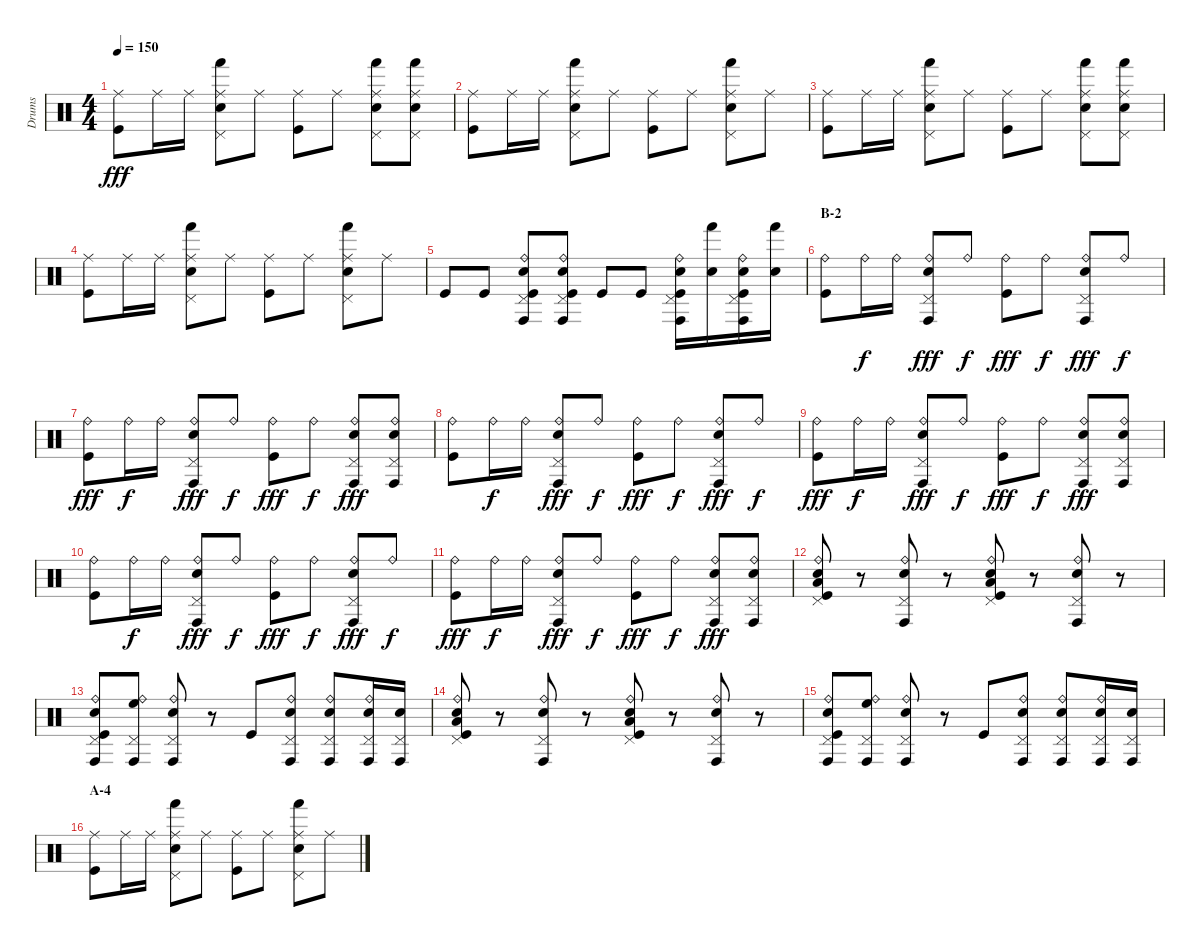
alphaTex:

\track ("Drums" "Drums") {instrument percussion}
\staff {score}
\articulation defaults
\ts (4 4)
\tempo 150
\clef neutral
\ks c
("Ride (middle)" "Kick (hit)").8{dy fff} "Ride (middle)".16 "Ride (middle)".16 ("Ride (middle)" "Pedal Hi-Hat (hit)" "Hand (hit)" "Electric Snare (hit)").8 "Ride (middle)".8 ("Ride (middle)" "Kick (hit)").8 "Ride (middle)".8 ("Ride (middle)" "Pedal Hi-Hat (hit)" "Hand (hit)" "Electric Snare (hit)").8 ("Ride (middle)" "Pedal Hi-Hat (hit)" "Hand (hit)" "Electric Snare (hit)").8 |
("Ride (middle)" "Kick (hit)").8 "Ride (middle)".16 "Ride (middle)".16 ("Ride (middle)" "Pedal Hi-Hat (hit)" "Hand (hit)" "Electric Snare (hit)").8 "Ride (middle)".8 ("Ride (middle)" "Kick (hit)").8 "Ride (middle)".8 ("Ride (middle)" "Pedal Hi-Hat (hit)" "Hand (hit)" "Electric Snare (hit)").8 "Ride (middle)".8 |
("Ride (middle)" "Kick (hit)").8 "Ride (middle)".16 "Ride (middle)".16 ("Ride (middle)" "Pedal Hi-Hat (hit)" "Hand (hit)" "Electric Snare (hit)").8 "Ride (middle)".8 ("Ride (middle)" "Kick (hit)").8 "Ride (middle)".8 ("Ride (middle)" "Pedal Hi-Hat (hit)" "Hand (hit)" "Electric Snare (hit)").8 ("Ride (middle)" "Pedal Hi-Hat (hit)" "Hand (hit)" "Electric Snare (hit)").8 |
("Ride (middle)" "Kick (hit)").8 "Ride (middle)".16 "Ride (middle)".16 ("Ride (middle)" "Pedal Hi-Hat (hit)" "Hand (hit)" "Electric Snare (hit)").8 "Ride (middle)".8 ("Ride (middle)" "Kick (hit)").8 "Ride (middle)".8 ("Ride (middle)" "Pedal Hi-Hat (hit)" "Hand (hit)" "Electric Snare (hit)").8 "Ride (middle)".8 |
"Kick (hit)".8 "Kick (hit)".8 ("Ride (bell)" "Pedal Hi-Hat (hit)" "Conga high (hit)" "Electric Snare (hit)" "Kick (hit)").8 ("Ride (bell)" "Pedal Hi-Hat (hit)" "Conga high (hit)" "Electric Snare (hit)" "Kick (hit)").8 "Kick (hit)".8 "Kick (hit)".8 ("Ride (bell)" "Pedal Hi-Hat (hit)" "Conga high (hit)" "Electric Snare (hit)" "Kick (hit)").16 ("Hand (hit)" "Electric Snare (hit)").16 ("Ride (bell)" "Pedal Hi-Hat (hit)" "Conga high (hit)" "Electric Snare (hit)" "Kick (hit)").16 ("Hand (hit)" "Electric Snare (hit)").16 |
\section ("" "B-2")
("Ride (bell)" "Kick (hit)").8 "Ride (bell)".16{dy f} "Ride (bell)".16 ("Ride (bell)" "Pedal Hi-Hat (hit)" "Conga high (hit)" "Electric Snare (hit)").8{dy fff} "Ride (bell)".8{dy f} ("Ride (bell)" "Kick (hit)").8{dy fff} "Ride (bell)".8{dy f} ("Ride (bell)" "Pedal Hi-Hat (hit)" "Conga high (hit)" "Electric Snare (hit)").8{dy fff} "Ride (bell)".8{dy f} |
("Ride (bell)" "Kick (hit)").8{dy fff} "Ride (bell)".16{dy f} "Ride (bell)".16 ("Ride (bell)" "Pedal Hi-Hat (hit)" "Conga high (hit)" "Electric Snare (hit)").8{dy fff} "Ride (bell)".8{dy f} ("Ride (bell)" "Kick (hit)").8{dy fff} "Ride (bell)".8{dy f} ("Ride (bell)" "Pedal Hi-Hat (hit)" "Conga high (hit)" "Electric Snare (hit)").8{dy fff} ("Ride (bell)" "Pedal Hi-Hat (hit)" "Conga high (hit)" "Electric Snare (hit)").8 |
("Ride (bell)" "Kick (hit)").8 "Ride (bell)".16{dy f} "Ride (bell)".16 ("Ride (bell)" "Pedal Hi-Hat (hit)" "Conga high (hit)" "Electric Snare (hit)").8{dy fff} "Ride (bell)".8{dy f} ("Ride (bell)" "Kick (hit)").8{dy fff} "Ride (bell)".8{dy f} ("Ride (bell)" "Pedal Hi-Hat (hit)" "Conga high (hit)" "Electric Snare (hit)").8{dy fff} "Ride (bell)".8{dy f} |
("Ride (bell)" "Kick (hit)").8{dy fff} "Ride (bell)".16{dy f} "Ride (bell)".16 ("Ride (bell)" "Pedal Hi-Hat (hit)" "Conga high (hit)" "Electric Snare (hit)").8{dy fff} "Ride (bell)".8{dy f} ("Ride (bell)" "Kick (hit)").8{dy fff} "Ride (bell)".8{dy f} ("Ride (bell)" "Pedal Hi-Hat (hit)" "Conga high (hit)" "Electric Snare (hit)").8{dy fff} ("Ride (bell)" "Pedal Hi-Hat (hit)" "Conga high (hit)" "Electric Snare (hit)").8 |
("Ride (bell)" "Kick (hit)").8 "Ride (bell)".16{dy f} "Ride (bell)".16 ("Ride (bell)" "Pedal Hi-Hat (hit)" "Conga high (hit)" "Electric Snare (hit)").8{dy fff} "Ride (bell)".8{dy f} ("Ride (bell)" "Kick (hit)").8{dy fff} "Ride (bell)".8{dy f} ("Ride (bell)" "Pedal Hi-Hat (hit)" "Conga high (hit)" "Electric Snare (hit)").8{dy fff} "Ride (bell)".8{dy f} |
("Ride (bell)" "Kick (hit)").8{dy fff} "Ride (bell)".16{dy f} "Ride (bell)".16 ("Ride (bell)" "Pedal Hi-Hat (hit)" "Conga high (hit)" "Electric Snare (hit)").8{dy fff} "Ride (bell)".8{dy f} ("Ride (bell)" "Kick (hit)").8{dy fff} "Ride (bell)".8{dy f} ("Ride (bell)" "Pedal Hi-Hat (hit)" "Conga high (hit)" "Electric Snare (hit)").8{dy fff} ("Ride (bell)" "Pedal Hi-Hat (hit)" "Conga high (hit)" "Electric Snare (hit)").8 |
("Ride (bell)" "Pedal Hi-Hat (hit)" "Low Tom (hit)" "Electric Snare (hit)" "Kick (hit)").8 r.8 ("Ride (bell)" "Pedal Hi-Hat (hit)" "Conga high (hit)" "Electric Snare (hit)").8 r.8 ("Ride (bell)" "Pedal Hi-Hat (hit)" "Low Tom (hit)" "Electric Snare (hit)" "Kick (hit)").8 r.8 ("Ride (bell)" "Pedal Hi-Hat (hit)" "Conga high (hit)" "Electric Snare (hit)").8 r.8 |
("Ride (bell)" "Pedal Hi-Hat (hit)" "Conga high (hit)" "Electric Snare (hit)" "Kick (hit)").8 ("Ride (bell)" "Pedal Hi-Hat (hit)" "Conga high (hit)" "High Floor Tom (hit)").8 ("Ride (bell)" "Pedal Hi-Hat (hit)" "Conga high (hit)" "Electric Snare (hit)").8 r.8 "Kick (hit)".8 ("Ride (bell)" "Pedal Hi-Hat (hit)" "Conga high (hit)" "Electric Snare (hit)").8 ("Ride (bell)" "Pedal Hi-Hat (hit)" "Conga high (hit)" "Electric Snare (hit)").8 ("Ride (bell)" "Pedal Hi-Hat (hit)" "Conga high (hit)" "Electric Snare (hit)").16 ("Pedal Hi-Hat (hit)" "Conga high (hit)" "Electric Snare (hit)").16 |
("Ride (bell)" "Pedal Hi-Hat (hit)" "Low Tom (hit)" "Electric Snare (hit)" "Kick (hit)").8 r.8 ("Ride (bell)" "Pedal Hi-Hat (hit)" "Conga high (hit)" "Electric Snare (hit)").8 r.8 ("Ride (bell)" "Pedal Hi-Hat (hit)" "Low Tom (hit)" "Electric Snare (hit)" "Kick (hit)").8 r.8 ("Ride (bell)" "Pedal Hi-Hat (hit)" "Conga high (hit)" "Electric Snare (hit)").8 r.8 |
("Ride (bell)" "Pedal Hi-Hat (hit)" "Conga high (hit)" "Electric Snare (hit)" "Kick (hit)").8 ("Ride (bell)" "Pedal Hi-Hat (hit)" "Conga high (hit)" "High Floor Tom (hit)").8 ("Ride (bell)" "Pedal Hi-Hat (hit)" "Conga high (hit)" "Electric Snare (hit)").8 r.8 "Kick (hit)".8 ("Ride (bell)" "Pedal Hi-Hat (hit)" "Conga high (hit)" "Electric Snare (hit)").8 ("Ride (bell)" "Pedal Hi-Hat (hit)" "Conga high (hit)" "Electric Snare (hit)").8 ("Ride (bell)" "Pedal Hi-Hat (hit)" "Conga high (hit)" "Electric Snare (hit)").16 ("Pedal Hi-Hat (hit)" "Conga high (hit)" "Electric Snare (hit)").16 |
\section ("" "A-4")
("Ride (middle)" "Kick (hit)").8 "Ride (middle)".16 "Ride (middle)".16 ("Ride (middle)" "Pedal Hi-Hat (hit)" "Hand (hit)" "Electric Snare (hit)").8 "Ride (middle)".8 ("Ride (middle)" "Kick (hit)").8 "Ride (middle)".8 ("Ride (middle)" "Pedal Hi-Hat (hit)" "Hand (hit)" "Electric Snare (hit)").8 "Ride (middle)".8
